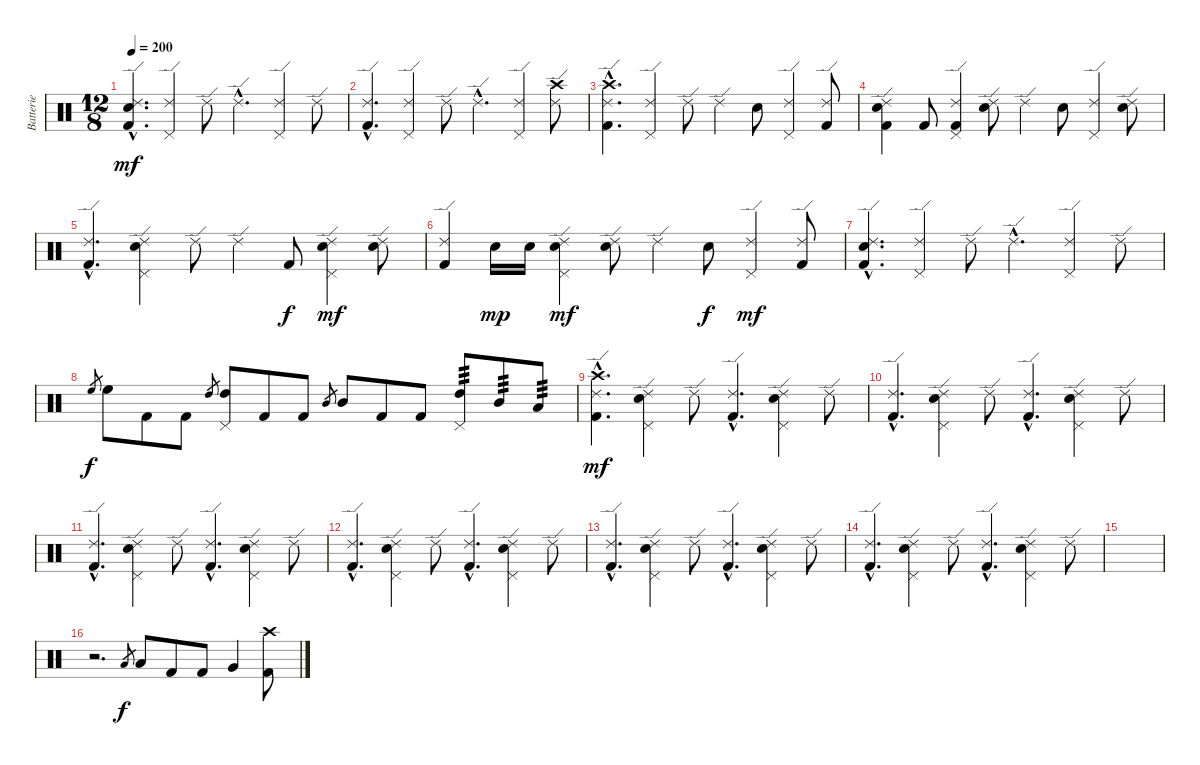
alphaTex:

\track ("Batterie" "Batterie") {instrument percussion}
\staff {score}
\articulation defaults
\ts (12 8)
\tempo 200
\clef neutral
\ks c
("Metronome (bell)"{hac} "Ride (edge) 2"{hac} "Kick (hit) 2"{hac}).4{d dy mf} ("Ride (edge) 2" "Pedal Hi-Hat (hit)").4 "Ride (edge) 2".8 "Ride (edge) 2"{hac}.4{d} ("Ride (edge) 2" "Pedal Hi-Hat (hit)").4 "Ride (edge) 2".8 |
("Ride (edge) 2"{hac} "Kick (hit) 2"{hac}).4{d} ("Ride (edge) 2" "Pedal Hi-Hat (hit)").4 "Ride (edge) 2".8 "Ride (edge) 2"{hac}.4{d} ("Ride (edge) 2" "Pedal Hi-Hat (hit)").4 ("Crash high (hit)" "Ride (edge) 2").8 |
("Crash high (hit)"{hac} "Ride (edge) 2"{hac} "Kick (hit) 2"{hac}).4{d} ("Ride (edge) 2" "Pedal Hi-Hat (hit)").4 "Ride (edge) 2".8 "Ride (edge) 2".4 "Electric Snare (hit)".8 ("Ride (edge) 2" "Pedal Hi-Hat (hit)").4 ("Ride (edge) 2" "Kick (hit) 2").8 |
("Ride (edge) 2" "Electric Snare (hit)" "Kick (hit) 2").4 "Kick (hit) 2".8 ("Ride (edge) 2" "Pedal Hi-Hat (hit)" "Kick (hit) 2").4 ("Ride (edge) 2" "Electric Snare (hit)").8 "Ride (edge) 2".4 "Electric Snare (hit)".8 ("Ride (edge) 2" "Pedal Hi-Hat (hit)").4 ("Ride (edge) 2" "Electric Snare (hit)").8 |
("Ride (edge) 2"{hac} "Kick (hit) 2"{hac}).4{d} ("Ride (edge) 2" "Pedal Hi-Hat (hit)" "Electric Snare (hit)").4 "Ride (edge) 2".8 "Ride (edge) 2".4 "Kick (hit) 2".8{dy f} ("Ride (edge) 2" "Electric Snare (hit)" "Pedal Hi-Hat (hit)").4{dy mf} ("Ride (edge) 2" "Electric Snare (hit)").8 |
("Ride (edge) 2" "Kick (hit) 2").4 "Electric Snare (hit)".16{dy mp} "Electric Snare (hit)".16 ("Ride (edge) 2" "Pedal Hi-Hat (hit)" "Electric Snare (hit)").4{dy mf} ("Ride (edge) 2" "Electric Snare (hit)").8 "Ride (edge) 2".4 "Electric Snare (hit)".8{dy f} ("Ride (edge) 2" "Pedal Hi-Hat (hit)").4{dy mf} ("Ride (edge) 2" "Kick (hit) 2").8 |
("Metronome (bell)"{hac} "Ride (edge) 2"{hac} "Kick (hit) 2"{hac}).4{d} ("Ride (edge) 2" "Pedal Hi-Hat (hit)").4 "Ride (edge) 2".8 "Ride (edge) 2"{hac}.4{d} ("Ride (edge) 2" "Pedal Hi-Hat (hit)").4 "Ride (edge) 2".8 |
"High Floor Tom (hit)".8{gr dy f} "High Floor Tom (hit)".8 "Kick (hit) 2".8 "Kick (hit) 2".8 "High Tom (hit)".8{gr} ("High Tom (hit)" "Pedal Hi-Hat (hit)").8 "Kick (hit) 2".8 "Kick (hit) 2".8 "Mid Tom (hit)".8{gr} "Mid Tom (hit)".8 "Kick (hit) 2".8 "Kick (hit) 2".8 ("High Tom (hit)" "Pedal Hi-Hat (hit)").8{tp 3} "Mid Tom (hit)".8{tp 3} "Low Tom (hit)".8{tp 3} |
("Crash high (hit)"{hac} "Ride (edge) 2"{hac} "Kick (hit) 2"{hac}).4{d dy mf} ("Electric Snare (hit)" "Ride (edge) 2" "Pedal Hi-Hat (hit)").4 "Ride (edge) 2".8 ("Ride (edge) 2"{hac} "Kick (hit) 2"{hac}).4{d} ("Electric Snare (hit)" "Ride (edge) 2" "Pedal Hi-Hat (hit)").4 "Ride (edge) 2".8 |
("Ride (edge) 2"{hac} "Kick (hit) 2"{hac}).4{d} ("Electric Snare (hit)" "Ride (edge) 2" "Pedal Hi-Hat (hit)").4 "Ride (edge) 2".8 ("Ride (edge) 2"{hac} "Kick (hit) 2"{hac}).4{d} ("Electric Snare (hit)" "Ride (edge) 2" "Pedal Hi-Hat (hit)").4 "Ride (edge) 2".8 |
("Ride (edge) 2"{hac} "Kick (hit) 2"{hac}).4{d} ("Electric Snare (hit)" "Ride (edge) 2" "Pedal Hi-Hat (hit)").4 "Ride (edge) 2".8 ("Ride (edge) 2"{hac} "Kick (hit) 2"{hac}).4{d} ("Electric Snare (hit)" "Ride (edge) 2" "Pedal Hi-Hat (hit)").4 "Ride (edge) 2".8 |
("Ride (edge) 2"{hac} "Kick (hit) 2"{hac}).4{d} ("Electric Snare (hit)" "Ride (edge) 2" "Pedal Hi-Hat (hit)").4 "Ride (edge) 2".8 ("Ride (edge) 2"{hac} "Kick (hit) 2"{hac}).4{d} ("Electric Snare (hit)" "Ride (edge) 2" "Pedal Hi-Hat (hit)").4 "Ride (edge) 2".8 |
("Ride (edge) 2"{hac} "Kick (hit) 2"{hac}).4{d} ("Electric Snare (hit)" "Ride (edge) 2" "Pedal Hi-Hat (hit)").4 "Ride (edge) 2".8 ("Ride (edge) 2"{hac} "Kick (hit) 2"{hac}).4{d} ("Electric Snare (hit)" "Ride (edge) 2" "Pedal Hi-Hat (hit)").4 "Ride (edge) 2".8 |
("Ride (edge) 2"{hac} "Kick (hit) 2"{hac}).4{d} ("Electric Snare (hit)" "Ride (edge) 2" "Pedal Hi-Hat (hit)").4 "Ride (edge) 2".8 ("Ride (edge) 2"{hac} "Kick (hit) 2"{hac}).4{d} ("Electric Snare (hit)" "Ride (edge) 2" "Pedal Hi-Hat (hit)").4 "Ride (edge) 2".8 |
|
r.2{d} "Low Tom (hit)".8{gr dy f} "Low Tom (hit)".8 "Kick (hit) 2".8 "Kick (hit) 2".8 "Very Low Tom (hit)".4 ("Crash high (hit)" "Kick (hit) 2").8
